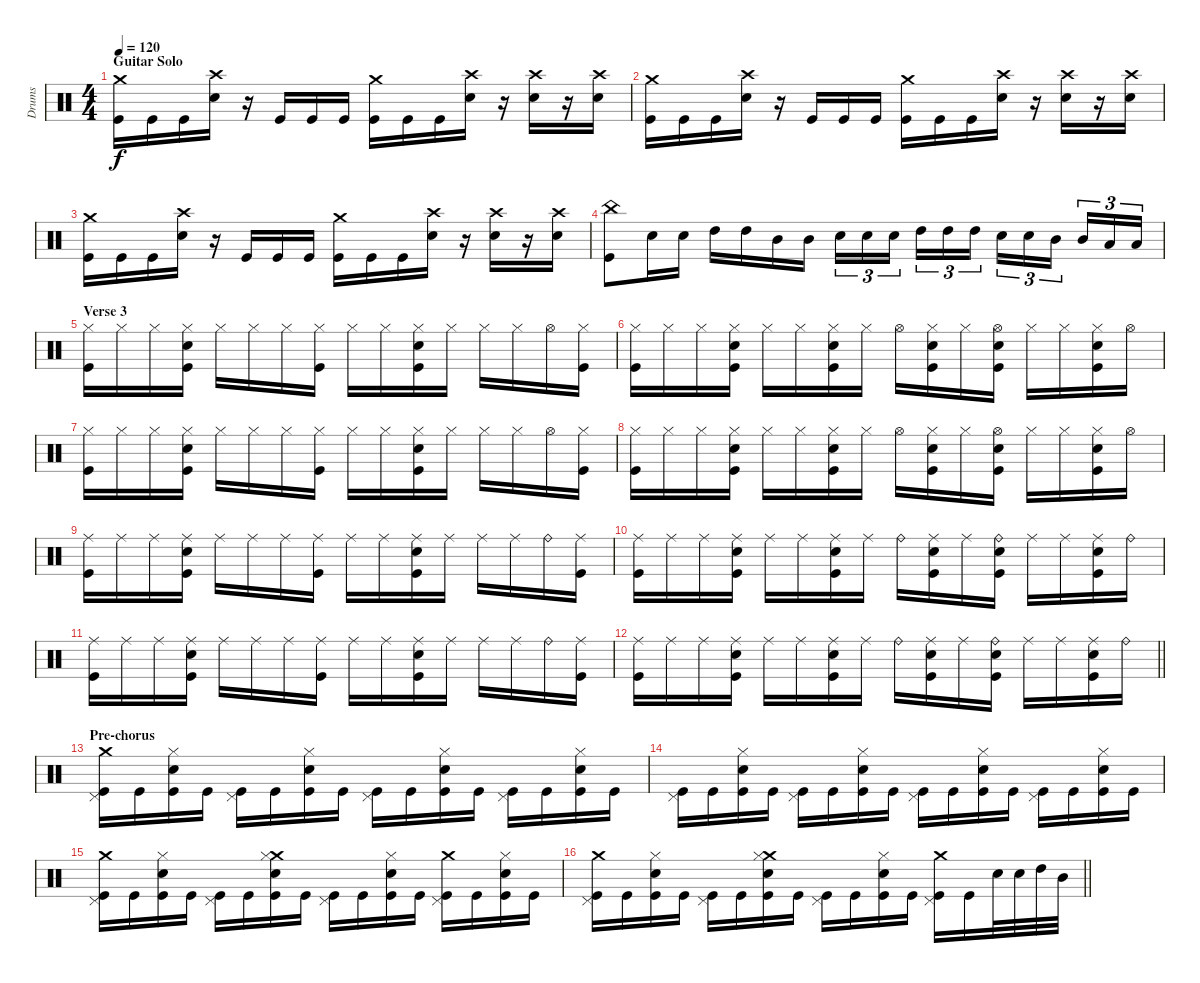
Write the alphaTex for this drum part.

\track ("Drums" "Drums") {instrument percussion}
\staff {score}
\articulation defaults
\ts (4 4)
\section ("" "Guitar Solo")
\tempo 120
\clef neutral
\ks c
("Crash medium (hit)" "Kick (hit)").16{dy f} "Kick (hit)".16 "Kick (hit)".16 ("Crash high (hit)" "Electric Snare (hit)").16 r.16 "Kick (hit)".16 "Kick (hit)".16 "Kick (hit)".16 ("Crash medium (hit)" "Kick (hit)").16 "Kick (hit)".16 "Kick (hit)".16 ("Crash high (hit)" "Electric Snare (hit)").16 r.16 ("Crash high (hit)" "Electric Snare (hit)").16 r.16 ("Crash high (hit)" "Electric Snare (hit)").16 |
("Crash medium (hit)" "Kick (hit)").16 "Kick (hit)".16 "Kick (hit)".16 ("Crash high (hit)" "Electric Snare (hit)").16 r.16 "Kick (hit)".16 "Kick (hit)".16 "Kick (hit)".16 ("Crash medium (hit)" "Kick (hit)").16 "Kick (hit)".16 "Kick (hit)".16 ("Crash high (hit)" "Electric Snare (hit)").16 r.16 ("Crash high (hit)" "Electric Snare (hit)").16 r.16 ("Crash high (hit)" "Electric Snare (hit)").16 |
("Crash medium (hit)" "Kick (hit)").16 "Kick (hit)".16 "Kick (hit)".16 ("Crash high (hit)" "Electric Snare (hit)").16 r.16 "Kick (hit)".16 "Kick (hit)".16 "Kick (hit)".16 ("Crash medium (hit)" "Kick (hit)").16 "Kick (hit)".16 "Kick (hit)".16 ("Crash high (hit)" "Electric Snare (hit)").16 r.16 ("Crash high (hit)" "Electric Snare (hit)").16 r.16 ("Crash high (hit)" "Electric Snare (hit)").16 |
("China (hit)" "Kick (hit)").8 "Electric Snare (hit)".16 "Electric Snare (hit)".16 "High Tom (hit)".16 "High Tom (hit)".16 "Mid Tom (hit)".16 "Mid Tom (hit)".16 "Electric Snare (hit)".16{tu (3 2)} "Electric Snare (hit)".16{tu (3 2)} "Electric Snare (hit)".16{tu (3 2)} "High Tom (hit)".16{tu (3 2)} "High Tom (hit)".16{tu (3 2)} "High Tom (hit)".16{tu (3 2)} "Electric Snare (hit)".16{tu (3 2)} "Electric Snare (hit)".16{tu (3 2)} "Mid Tom (hit)".16{tu (3 2)} "Mid Tom (hit)".16{tu (3 2)} "Low Tom (hit)".16{tu (3 2)} "Low Tom (hit)".16{tu (3 2)} |
\section ("" "Verse 3")
("Hi-Hat (closed)" "Kick (hit)").16 "Hi-Hat (closed)".16 "Hi-Hat (closed)".16 ("Hi-Hat (closed)" "Electric Snare (hit)" "Kick (hit)").16 "Hi-Hat (closed)".16 "Hi-Hat (closed)".16 "Hi-Hat (closed)".16 ("Hi-Hat (closed)" "Kick (hit)").16 "Hi-Hat (closed)".16 "Hi-Hat (closed)".16 ("Hi-Hat (closed)" "Electric Snare (hit)" "Kick (hit)").16 "Hi-Hat (closed)".16 "Hi-Hat (closed)".16 "Hi-Hat (closed)".16 "Hi-Hat (open)".16 ("Hi-Hat (closed)" "Kick (hit)").16 |
("Hi-Hat (closed)" "Kick (hit)").16 "Hi-Hat (closed)".16 "Hi-Hat (closed)".16 ("Hi-Hat (closed)" "Electric Snare (hit)" "Kick (hit)").16 "Hi-Hat (closed)".16 "Hi-Hat (closed)".16 ("Hi-Hat (closed)" "Electric Snare (hit)" "Kick (hit)").16 "Hi-Hat (closed)".16 "Hi-Hat (open)".16 ("Hi-Hat (closed)" "Electric Snare (hit)" "Kick (hit)").16 "Hi-Hat (closed)".16 ("Hi-Hat (open)" "Electric Snare (hit)" "Kick (hit)").16 "Hi-Hat (closed)".16 "Hi-Hat (closed)".16 ("Hi-Hat (closed)" "Electric Snare (hit)" "Kick (hit)").16 "Hi-Hat (open)".16 |
("Hi-Hat (closed)" "Kick (hit)").16 "Hi-Hat (closed)".16 "Hi-Hat (closed)".16 ("Hi-Hat (closed)" "Electric Snare (hit)" "Kick (hit)").16 "Hi-Hat (closed)".16 "Hi-Hat (closed)".16 "Hi-Hat (closed)".16 ("Hi-Hat (closed)" "Kick (hit)").16 "Hi-Hat (closed)".16 "Hi-Hat (closed)".16 ("Hi-Hat (closed)" "Electric Snare (hit)" "Kick (hit)").16 "Hi-Hat (closed)".16 "Hi-Hat (closed)".16 "Hi-Hat (closed)".16 "Hi-Hat (open)".16 ("Hi-Hat (closed)" "Kick (hit)").16 |
("Hi-Hat (closed)" "Kick (hit)").16 "Hi-Hat (closed)".16 "Hi-Hat (closed)".16 ("Hi-Hat (closed)" "Electric Snare (hit)" "Kick (hit)").16 "Hi-Hat (closed)".16 "Hi-Hat (closed)".16 ("Hi-Hat (closed)" "Electric Snare (hit)" "Kick (hit)").16 "Hi-Hat (closed)".16 "Hi-Hat (open)".16 ("Hi-Hat (closed)" "Electric Snare (hit)" "Kick (hit)").16 "Hi-Hat (closed)".16 ("Hi-Hat (open)" "Electric Snare (hit)" "Kick (hit)").16 "Hi-Hat (closed)".16 "Hi-Hat (closed)".16 ("Hi-Hat (closed)" "Electric Snare (hit)" "Kick (hit)").16 "Hi-Hat (open)".16 |
("Ride (middle)" "Kick (hit)").16 "Ride (middle)".16 "Ride (middle)".16 ("Ride (middle)" "Electric Snare (hit)" "Kick (hit)").16 "Ride (middle)".16 "Ride (middle)".16 "Ride (middle)".16 ("Ride (middle)" "Kick (hit)").16 "Ride (middle)".16 "Ride (middle)".16 ("Ride (middle)" "Electric Snare (hit)" "Kick (hit)").16 "Ride (middle)".16 "Ride (middle)".16 "Ride (middle)".16 "Ride (bell)".16 ("Ride (middle)" "Kick (hit)").16 |
("Ride (middle)" "Kick (hit)").16 "Ride (middle)".16 "Ride (middle)".16 ("Ride (middle)" "Electric Snare (hit)" "Kick (hit)").16 "Ride (middle)".16 "Ride (middle)".16 ("Ride (middle)" "Electric Snare (hit)" "Kick (hit)").16 "Ride (middle)".16 "Ride (bell)".16 ("Ride (middle)" "Electric Snare (hit)" "Kick (hit)").16 "Ride (middle)".16 ("Ride (bell)" "Electric Snare (hit)" "Kick (hit)").16 "Ride (middle)".16 "Ride (middle)".16 ("Ride (middle)" "Electric Snare (hit)" "Kick (hit)").16 "Ride (bell)".16 |
("Ride (middle)" "Kick (hit)").16 "Ride (middle)".16 "Ride (middle)".16 ("Ride (middle)" "Electric Snare (hit)" "Kick (hit)").16 "Ride (middle)".16 "Ride (middle)".16 "Ride (middle)".16 ("Ride (middle)" "Kick (hit)").16 "Ride (middle)".16 "Ride (middle)".16 ("Ride (middle)" "Electric Snare (hit)" "Kick (hit)").16 "Ride (middle)".16 "Ride (middle)".16 "Ride (middle)".16 "Ride (bell)".16 ("Ride (middle)" "Kick (hit)").16 |
\barLineRight lightlight
("Ride (middle)" "Kick (hit)").16 "Ride (middle)".16 "Ride (middle)".16 ("Ride (middle)" "Electric Snare (hit)" "Kick (hit)").16 "Ride (middle)".16 "Ride (middle)".16 ("Ride (middle)" "Electric Snare (hit)" "Kick (hit)").16 "Ride (middle)".16 "Ride (bell)".16 ("Ride (middle)" "Electric Snare (hit)" "Kick (hit)").16 "Ride (middle)".16 ("Ride (bell)" "Electric Snare (hit)" "Kick (hit)").16 "Ride (middle)".16 "Ride (middle)".16 ("Ride (middle)" "Electric Snare (hit)" "Kick (hit)").16 "Ride (bell)".16 |
\section ("" "Pre-chorus")
("Crash medium (hit)" "Pedal Hi-Hat (hit)" "Kick (hit)").16 "Kick (hit)".16 ("Hi-Hat (closed)" "Electric Snare (hit)" "Kick (hit)").16 "Kick (hit)".16 ("Pedal Hi-Hat (hit)" "Kick (hit)").16 "Kick (hit)".16 ("Hi-Hat (closed)" "Electric Snare (hit)" "Kick (hit)").16 "Kick (hit)".16 ("Pedal Hi-Hat (hit)" "Kick (hit)").16 "Kick (hit)".16 ("Hi-Hat (closed)" "Electric Snare (hit)" "Kick (hit)").16 "Kick (hit)".16 ("Pedal Hi-Hat (hit)" "Kick (hit)").16 "Kick (hit)".16 ("Hi-Hat (closed)" "Electric Snare (hit)" "Kick (hit)").16 "Kick (hit)".16 |
("Pedal Hi-Hat (hit)" "Kick (hit)").16 "Kick (hit)".16 ("Hi-Hat (closed)" "Electric Snare (hit)" "Kick (hit)").16 "Kick (hit)".16 ("Pedal Hi-Hat (hit)" "Kick (hit)").16 "Kick (hit)".16 ("Hi-Hat (closed)" "Electric Snare (hit)" "Kick (hit)").16 "Kick (hit)".16 ("Pedal Hi-Hat (hit)" "Kick (hit)").16 "Kick (hit)".16 ("Hi-Hat (closed)" "Electric Snare (hit)" "Kick (hit)").16 "Kick (hit)".16 ("Pedal Hi-Hat (hit)" "Kick (hit)").16 "Kick (hit)".16 ("Hi-Hat (closed)" "Electric Snare (hit)" "Kick (hit)").16 "Kick (hit)".16 |
("Crash medium (hit)" "Pedal Hi-Hat (hit)" "Kick (hit)").16 "Kick (hit)".16 ("Hi-Hat (closed)" "Electric Snare (hit)" "Kick (hit)").16 "Kick (hit)".16 ("Pedal Hi-Hat (hit)" "Kick (hit)").16 "Kick (hit)".16 ("Crash medium (hit)" "Hi-Hat (closed)" "Electric Snare (hit)" "Kick (hit)").16 "Kick (hit)".16 ("Pedal Hi-Hat (hit)" "Kick (hit)").16 "Kick (hit)".16 ("Hi-Hat (closed)" "Electric Snare (hit)" "Kick (hit)").16 "Kick (hit)".16 ("Crash medium (hit)" "Pedal Hi-Hat (hit)" "Kick (hit)").16 "Kick (hit)".16 ("Hi-Hat (closed)" "Electric Snare (hit)" "Kick (hit)").16 "Kick (hit)".16 |
\barLineRight lightlight
("Crash medium (hit)" "Pedal Hi-Hat (hit)" "Kick (hit)").16 "Kick (hit)".16 ("Hi-Hat (closed)" "Electric Snare (hit)" "Kick (hit)").16 "Kick (hit)".16 ("Pedal Hi-Hat (hit)" "Kick (hit)").16 "Kick (hit)".16 ("Crash medium (hit)" "Hi-Hat (closed)" "Electric Snare (hit)" "Kick (hit)").16 "Kick (hit)".16 ("Pedal Hi-Hat (hit)" "Kick (hit)").16 "Kick (hit)".16 ("Hi-Hat (closed)" "Electric Snare (hit)" "Kick (hit)").16 "Kick (hit)".16 ("Crash medium (hit)" "Pedal Hi-Hat (hit)" "Kick (hit)").16 "Kick (hit)".16 "Electric Snare (hit)".32 "Electric Snare (hit)".32 "High Tom (hit)".32 "Mid Tom (hit)".32
